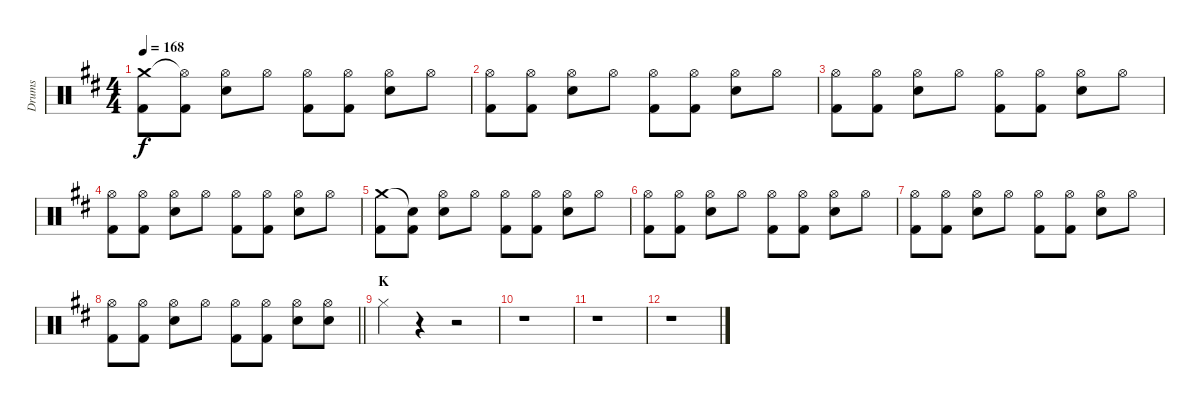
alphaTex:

\track ("Drums" "Drums") {instrument percussion}
\staff {score}
\articulation defaults
\ts (4 4)
\tempo 168
\clef neutral
\ks d
("Crash medium (hit)" "Kick (hit) 2").8{dy f} ("Hi-Hat (open)"{t} "Kick (hit) 2").8 ("Hi-Hat (open)" "Electric Snare (hit)").8 "Hi-Hat (open)".8 ("Hi-Hat (open)" "Kick (hit) 2").8 ("Hi-Hat (open)" "Kick (hit) 2").8 ("Hi-Hat (open)" "Electric Snare (hit)").8 "Hi-Hat (open)".8 |
("Hi-Hat (open)" "Kick (hit) 2").8 ("Hi-Hat (open)" "Kick (hit) 2").8 ("Hi-Hat (open)" "Electric Snare (hit)").8 "Hi-Hat (open)".8 ("Hi-Hat (open)" "Kick (hit) 2").8 ("Hi-Hat (open)" "Kick (hit) 2").8 ("Hi-Hat (open)" "Electric Snare (hit)").8 "Hi-Hat (open)".8 |
("Hi-Hat (open)" "Kick (hit) 2").8 ("Hi-Hat (open)" "Kick (hit) 2").8 ("Hi-Hat (open)" "Electric Snare (hit)").8 "Hi-Hat (open)".8 ("Hi-Hat (open)" "Kick (hit) 2").8 ("Hi-Hat (open)" "Kick (hit) 2").8 ("Hi-Hat (open)" "Electric Snare (hit)").8 "Hi-Hat (open)".8 |
("Hi-Hat (open)" "Kick (hit) 2").8 ("Hi-Hat (open)" "Kick (hit) 2").8 ("Hi-Hat (open)" "Electric Snare (hit)").8 "Hi-Hat (open)".8 ("Hi-Hat (open)" "Kick (hit) 2").8 ("Hi-Hat (open)" "Kick (hit) 2").8 ("Hi-Hat (open)" "Electric Snare (hit)").8 "Hi-Hat (open)".8 |
("Crash medium (hit)" "Kick (hit) 2").8 ("Snare (hit)"{t} "Kick (hit) 2").8 ("Hi-Hat (open)" "Electric Snare (hit)").8 "Hi-Hat (open)".8 ("Hi-Hat (open)" "Kick (hit) 2").8 ("Hi-Hat (open)" "Kick (hit) 2").8 ("Hi-Hat (open)" "Electric Snare (hit)").8 "Hi-Hat (open)".8 |
("Hi-Hat (open)" "Kick (hit) 2").8 ("Hi-Hat (open)" "Kick (hit) 2").8 ("Hi-Hat (open)" "Electric Snare (hit)").8 "Hi-Hat (open)".8 ("Hi-Hat (open)" "Kick (hit) 2").8 ("Hi-Hat (open)" "Kick (hit) 2").8 ("Hi-Hat (open)" "Electric Snare (hit)").8 "Hi-Hat (open)".8 |
("Hi-Hat (open)" "Kick (hit) 2").8 ("Hi-Hat (open)" "Kick (hit) 2").8 ("Hi-Hat (open)" "Electric Snare (hit)").8 "Hi-Hat (open)".8 ("Hi-Hat (open)" "Kick (hit) 2").8 ("Hi-Hat (open)" "Kick (hit) 2").8 ("Hi-Hat (open)" "Electric Snare (hit)").8 "Hi-Hat (open)".8 |
\barLineRight lightlight
("Hi-Hat (open)" "Kick (hit) 2").8 ("Hi-Hat (open)" "Kick (hit) 2").8 ("Hi-Hat (open)" "Electric Snare (hit)").8 "Hi-Hat (open)".8 ("Hi-Hat (open)" "Kick (hit) 2").8 ("Hi-Hat (open)" "Kick (hit) 2").8 ("Hi-Hat (open)" "Electric Snare (hit)").8 ("Hi-Hat (open)" "Electric Snare (hit)").8 |
\section ("" "K")
"Hi-Hat (closed)".4 r.4 r.2 |
r.1 |
r.1 |
r.1
